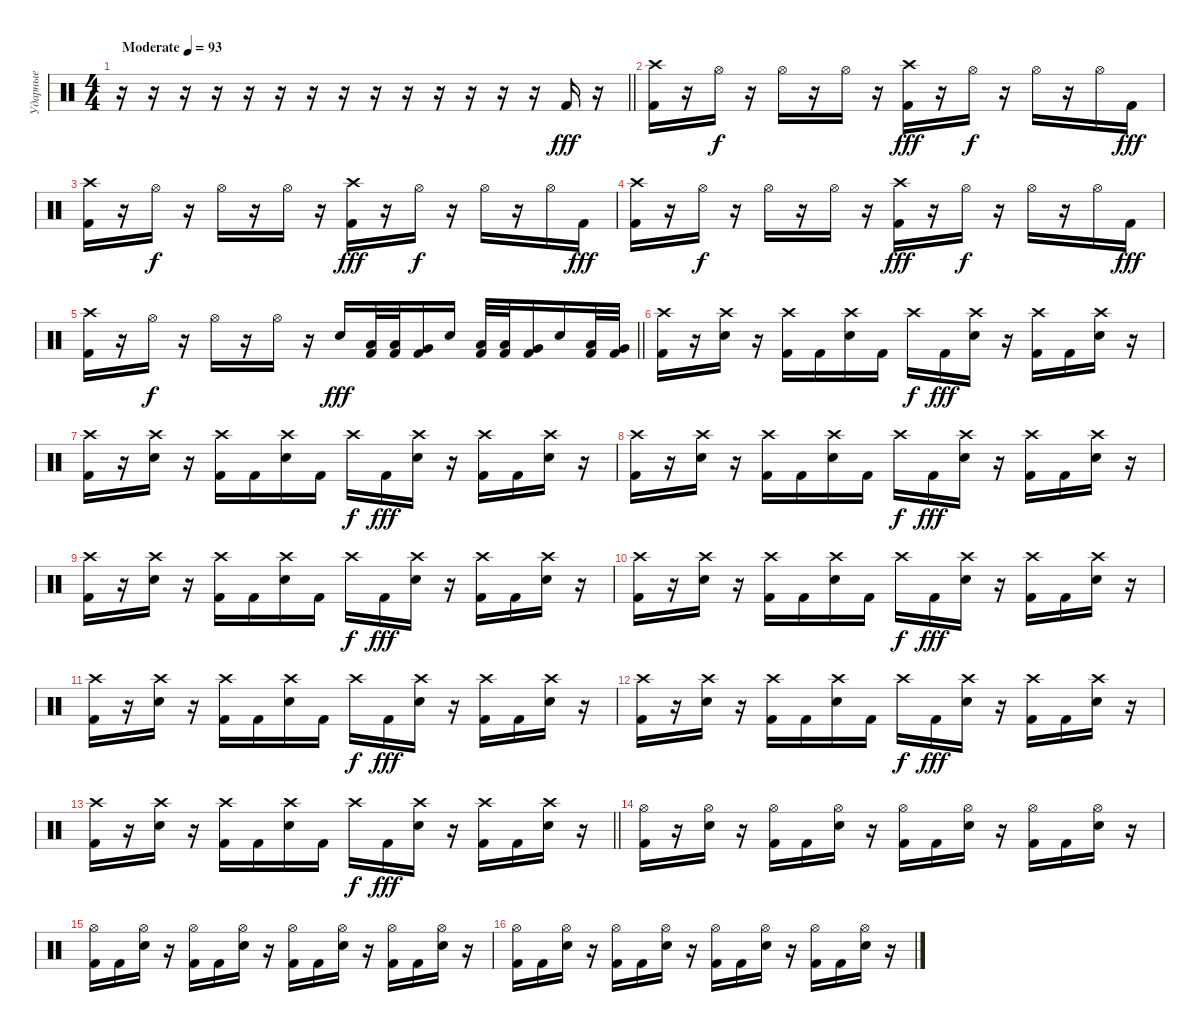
\track ("Ударные" "Ударные") {instrument percussion}
\staff {score}
\articulation defaults
\ts (4 4)
\tempo (93 "Moderate")
\clef neutral
\barLineRight lightlight
\ks c
r.16{dy fff} r.16 r.16 r.16 r.16 r.16 r.16 r.16 r.16 r.16 r.16 r.16 r.16 r.16 "Kick (hit) 2".16 r.16 |
\section ("" "")
("Crash high (hit)" "Kick (hit) 2").16 r.16 "Hi-Hat (open)".16{dy f} r.16 "Hi-Hat (open)".16 r.16 "Hi-Hat (open)".16 r.16 ("Crash high (hit)" "Kick (hit) 2").16{dy fff} r.16 "Hi-Hat (open)".16{dy f} r.16 "Hi-Hat (open)".16 r.16 "Hi-Hat (open)".16 "Kick (hit) 2".16{dy fff} |
("Crash high (hit)" "Kick (hit) 2").16 r.16 "Hi-Hat (open)".16{dy f} r.16 "Hi-Hat (open)".16 r.16 "Hi-Hat (open)".16 r.16 ("Crash high (hit)" "Kick (hit) 2").16{dy fff} r.16 "Hi-Hat (open)".16{dy f} r.16 "Hi-Hat (open)".16 r.16 "Hi-Hat (open)".16 "Kick (hit) 2".16{dy fff} |
("Crash high (hit)" "Kick (hit) 2").16 r.16 "Hi-Hat (open)".16{dy f} r.16 "Hi-Hat (open)".16 r.16 "Hi-Hat (open)".16 r.16 ("Crash high (hit)" "Kick (hit) 2").16{dy fff} r.16 "Hi-Hat (open)".16{dy f} r.16 "Hi-Hat (open)".16 r.16 "Hi-Hat (open)".16 "Kick (hit) 2".16{dy fff} |
\barLineRight lightlight
("Crash high (hit)" "Kick (hit) 2").16 r.16 "Hi-Hat (open)".16{dy f} r.16 "Hi-Hat (open)".16 r.16 "Hi-Hat (open)".16 r.16 "Electric Snare (hit)".16{dy fff} ("Low Tom (hit)" "Kick (hit) 2").32 ("Low Tom (hit)" "Kick (hit) 2").32 ("Very Low Tom (hit)" "Kick (hit) 2").16 "Electric Snare (hit)".16 ("Low Tom (hit)" "Kick (hit) 2").32 ("Low Tom (hit)" "Kick (hit) 2").32 ("Very Low Tom (hit)" "Kick (hit) 2").16 "Electric Snare (hit)".16 ("Low Tom (hit)" "Kick (hit) 2").32 ("Very Low Tom (hit)" "Kick (hit) 2").32 |
\section ("" "")
("Crash high (hit)" "Kick (hit) 2").16 r.16 ("Crash high (hit)" "Electric Snare (hit)").16 r.16 ("Crash high (hit)" "Kick (hit) 2").16 "Kick (hit) 2".16 ("Crash high (hit)" "Electric Snare (hit)").16 "Kick (hit) 2".16 "Crash high (hit)".16{dy f} "Kick (hit) 2".16{dy fff} ("Crash high (hit)" "Electric Snare (hit)").16 r.16 ("Crash high (hit)" "Kick (hit) 2").16 "Kick (hit) 2".16 ("Crash high (hit)" "Electric Snare (hit)").16 r.16 |
("Crash high (hit)" "Kick (hit) 2").16 r.16 ("Crash high (hit)" "Electric Snare (hit)").16 r.16 ("Crash high (hit)" "Kick (hit) 2").16 "Kick (hit) 2".16 ("Crash high (hit)" "Electric Snare (hit)").16 "Kick (hit) 2".16 "Crash high (hit)".16{dy f} "Kick (hit) 2".16{dy fff} ("Crash high (hit)" "Electric Snare (hit)").16 r.16 ("Crash high (hit)" "Kick (hit) 2").16 "Kick (hit) 2".16 ("Crash high (hit)" "Electric Snare (hit)").16 r.16 |
("Crash high (hit)" "Kick (hit) 2").16 r.16 ("Crash high (hit)" "Electric Snare (hit)").16 r.16 ("Crash high (hit)" "Kick (hit) 2").16 "Kick (hit) 2".16 ("Crash high (hit)" "Electric Snare (hit)").16 "Kick (hit) 2".16 "Crash high (hit)".16{dy f} "Kick (hit) 2".16{dy fff} ("Crash high (hit)" "Electric Snare (hit)").16 r.16 ("Crash high (hit)" "Kick (hit) 2").16 "Kick (hit) 2".16 ("Crash high (hit)" "Electric Snare (hit)").16 r.16 |
("Crash high (hit)" "Kick (hit) 2").16 r.16 ("Crash high (hit)" "Electric Snare (hit)").16 r.16 ("Crash high (hit)" "Kick (hit) 2").16 "Kick (hit) 2".16 ("Crash high (hit)" "Electric Snare (hit)").16 "Kick (hit) 2".16 "Crash high (hit)".16{dy f} "Kick (hit) 2".16{dy fff} ("Crash high (hit)" "Electric Snare (hit)").16 r.16 ("Crash high (hit)" "Kick (hit) 2").16 "Kick (hit) 2".16 ("Crash high (hit)" "Electric Snare (hit)").16 r.16 |
("Crash high (hit)" "Kick (hit) 2").16 r.16 ("Crash high (hit)" "Electric Snare (hit)").16 r.16 ("Crash high (hit)" "Kick (hit) 2").16 "Kick (hit) 2".16 ("Crash high (hit)" "Electric Snare (hit)").16 "Kick (hit) 2".16 "Crash high (hit)".16{dy f} "Kick (hit) 2".16{dy fff} ("Crash high (hit)" "Electric Snare (hit)").16 r.16 ("Crash high (hit)" "Kick (hit) 2").16 "Kick (hit) 2".16 ("Crash high (hit)" "Electric Snare (hit)").16 r.16 |
("Crash high (hit)" "Kick (hit) 2").16 r.16 ("Crash high (hit)" "Electric Snare (hit)").16 r.16 ("Crash high (hit)" "Kick (hit) 2").16 "Kick (hit) 2".16 ("Crash high (hit)" "Electric Snare (hit)").16 "Kick (hit) 2".16 "Crash high (hit)".16{dy f} "Kick (hit) 2".16{dy fff} ("Crash high (hit)" "Electric Snare (hit)").16 r.16 ("Crash high (hit)" "Kick (hit) 2").16 "Kick (hit) 2".16 ("Crash high (hit)" "Electric Snare (hit)").16 r.16 |
("Crash high (hit)" "Kick (hit) 2").16 r.16 ("Crash high (hit)" "Electric Snare (hit)").16 r.16 ("Crash high (hit)" "Kick (hit) 2").16 "Kick (hit) 2".16 ("Crash high (hit)" "Electric Snare (hit)").16 "Kick (hit) 2".16 "Crash high (hit)".16{dy f} "Kick (hit) 2".16{dy fff} ("Crash high (hit)" "Electric Snare (hit)").16 r.16 ("Crash high (hit)" "Kick (hit) 2").16 "Kick (hit) 2".16 ("Crash high (hit)" "Electric Snare (hit)").16 r.16 |
\barLineRight lightlight
("Crash high (hit)" "Kick (hit) 2").16 r.16 ("Crash high (hit)" "Electric Snare (hit)").16 r.16 ("Crash high (hit)" "Kick (hit) 2").16 "Kick (hit) 2".16 ("Crash high (hit)" "Electric Snare (hit)").16 "Kick (hit) 2".16 "Crash high (hit)".16{dy f} "Kick (hit) 2".16{dy fff} ("Crash high (hit)" "Electric Snare (hit)").16 r.16 ("Crash high (hit)" "Kick (hit) 2").16 "Kick (hit) 2".16 ("Crash high (hit)" "Electric Snare (hit)").16 r.16 |
\section ("" "")
("Hi-Hat (open)" "Kick (hit) 2").16 r.16 ("Hi-Hat (open)" "Electric Snare (hit)").16 r.16 ("Hi-Hat (open)" "Kick (hit) 2").16 "Kick (hit) 2".16 ("Hi-Hat (open)" "Electric Snare (hit)").16 r.16 ("Hi-Hat (open)" "Kick (hit) 2").16 "Kick (hit) 2".16 ("Hi-Hat (open)" "Electric Snare (hit)").16 r.16 ("Hi-Hat (open)" "Kick (hit) 2").16 "Kick (hit) 2".16 ("Hi-Hat (open)" "Electric Snare (hit)").16 r.16 |
("Hi-Hat (open)" "Kick (hit) 2").16 "Kick (hit) 2".16 ("Hi-Hat (open)" "Electric Snare (hit)").16 r.16 ("Hi-Hat (open)" "Kick (hit) 2").16 "Kick (hit) 2".16 ("Hi-Hat (open)" "Electric Snare (hit)").16 r.16 ("Hi-Hat (open)" "Kick (hit) 2").16 "Kick (hit) 2".16 ("Hi-Hat (open)" "Electric Snare (hit)").16 r.16 ("Hi-Hat (open)" "Kick (hit) 2").16 "Kick (hit) 2".16 ("Hi-Hat (open)" "Electric Snare (hit)").16 r.16 |
("Hi-Hat (open)" "Kick (hit) 2").16 "Kick (hit) 2".16 ("Hi-Hat (open)" "Electric Snare (hit)").16 r.16 ("Hi-Hat (open)" "Kick (hit) 2").16 "Kick (hit) 2".16 ("Hi-Hat (open)" "Electric Snare (hit)").16 r.16 ("Hi-Hat (open)" "Kick (hit) 2").16 "Kick (hit) 2".16 ("Hi-Hat (open)" "Electric Snare (hit)").16 r.16 ("Hi-Hat (open)" "Kick (hit) 2").16 "Kick (hit) 2".16 ("Hi-Hat (open)" "Electric Snare (hit)").16 r.16
